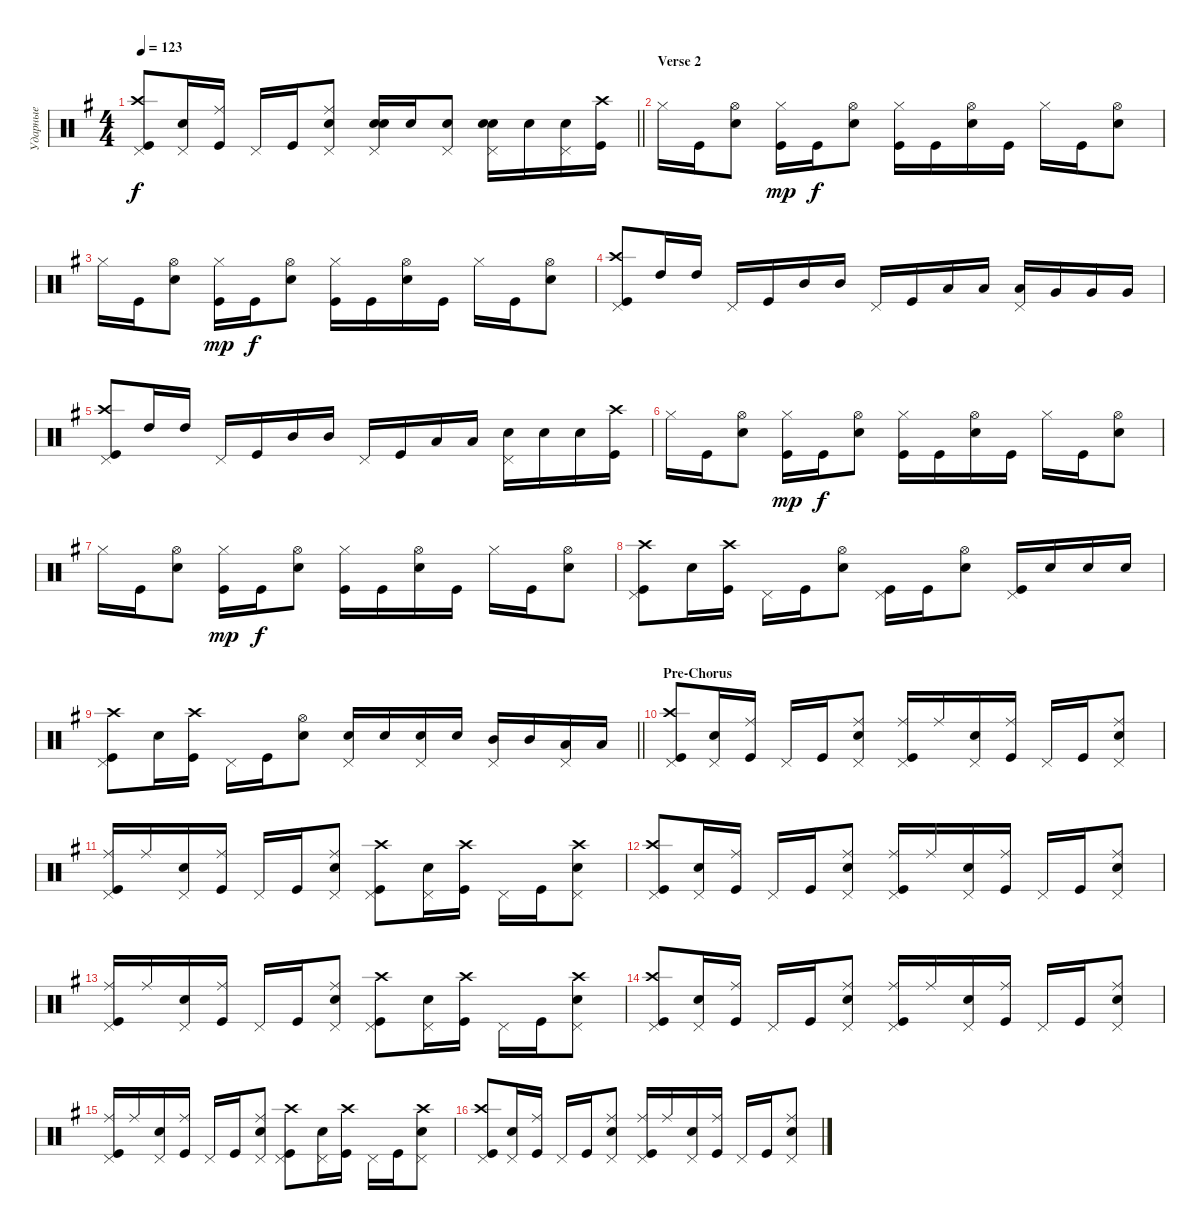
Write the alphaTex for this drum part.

\track ("Ударные" "Ударные") {instrument percussion}
\staff {score}
\articulation defaults
\ts (4 4)
\tempo 123
\clef neutral
\barLineRight lightlight
\ks eminor
("Kick (hit)" "Crash high (hit)" "Pedal Hi-Hat (hit)").8{dy f} ("Snare (hit) 2" "Pedal Hi-Hat (hit)").16 ("Kick (hit)" "Ride (middle)").16 "Pedal Hi-Hat (hit)".16 "Kick (hit)".16 ("Snare (hit) 2" "Ride (middle)" "Pedal Hi-Hat (hit)").8 ("Snare (hit) 2" "Snare (hit) 2" "Pedal Hi-Hat (hit)").16{bd 480} "Snare (hit) 2".16 ("Snare (hit) 2" "Pedal Hi-Hat (hit)").8 ("Snare (hit) 2" "Snare (hit) 2" "Pedal Hi-Hat (hit)").16{bd 480} "Snare (hit) 2".16 ("Snare (hit) 2" "Pedal Hi-Hat (hit)").16 ("Kick (hit)" "Crash high (hit)").16 |
\section ("" "Verse 2")
"Hi-Hat (closed)".16 "Kick (hit)".16 ("Snare (hit) 2" "Hi-Hat (open)").8 ("Kick (hit)" "Hi-Hat (closed)").16{dy mp} "Kick (hit)".16{dy f} ("Snare (hit) 2" "Hi-Hat (open)").8 ("Kick (hit)" "Hi-Hat (closed)").16 "Kick (hit)".16 ("Snare (hit) 2" "Hi-Hat (open)").16 "Kick (hit)".16 "Hi-Hat (closed)".16 "Kick (hit)".16 ("Snare (hit) 2" "Hi-Hat (open)").8 |
"Hi-Hat (closed)".16 "Kick (hit)".16 ("Snare (hit) 2" "Hi-Hat (open)").8 ("Kick (hit)" "Hi-Hat (closed)").16{dy mp} "Kick (hit)".16{dy f} ("Snare (hit) 2" "Hi-Hat (open)").8 ("Kick (hit)" "Hi-Hat (closed)").16 "Kick (hit)".16 ("Snare (hit) 2" "Hi-Hat (open)").16 "Kick (hit)".16 "Hi-Hat (closed)".16 "Kick (hit)".16 ("Snare (hit) 2" "Hi-Hat (open)").8 |
("Kick (hit)" "Crash high (hit)" "Pedal Hi-Hat (hit)").8 "High Tom (hit)".16 "High Tom (hit)".16 "Pedal Hi-Hat (hit)".16 "Kick (hit)".16 "Mid Tom (hit)".16 "Mid Tom (hit)".16 "Pedal Hi-Hat (hit)".16 "Kick (hit)".16 "Low Tom (hit)".16 "Low Tom (hit)".16 ("Low Tom (hit)" "Pedal Hi-Hat (hit)").16 "Very Low Tom (hit)".16 "Very Low Tom (hit)".16 "Very Low Tom (hit)".16 |
("Kick (hit)" "Crash high (hit)" "Pedal Hi-Hat (hit)").8 "High Tom (hit)".16 "High Tom (hit)".16 "Pedal Hi-Hat (hit)".16 "Kick (hit)".16 "Mid Tom (hit)".16 "Mid Tom (hit)".16 "Pedal Hi-Hat (hit)".16 "Kick (hit)".16 "Low Tom (hit)".16 "Low Tom (hit)".16 ("Snare (hit) 2" "Pedal Hi-Hat (hit)").16 "Snare (hit) 2".16 "Snare (hit) 2".16 ("Kick (hit)" "Crash high (hit)").16 |
"Hi-Hat (closed)".16 "Kick (hit)".16 ("Snare (hit) 2" "Hi-Hat (open)").8 ("Kick (hit)" "Hi-Hat (closed)").16{dy mp} "Kick (hit)".16{dy f} ("Snare (hit) 2" "Hi-Hat (open)").8 ("Kick (hit)" "Hi-Hat (closed)").16 "Kick (hit)".16 ("Snare (hit) 2" "Hi-Hat (open)").16 "Kick (hit)".16 "Hi-Hat (closed)".16 "Kick (hit)".16 ("Snare (hit) 2" "Hi-Hat (open)").8 |
"Hi-Hat (closed)".16 "Kick (hit)".16 ("Snare (hit) 2" "Hi-Hat (open)").8 ("Kick (hit)" "Hi-Hat (closed)").16{dy mp} "Kick (hit)".16{dy f} ("Snare (hit) 2" "Hi-Hat (open)").8 ("Kick (hit)" "Hi-Hat (closed)").16 "Kick (hit)".16 ("Snare (hit) 2" "Hi-Hat (open)").16 "Kick (hit)".16 "Hi-Hat (closed)".16 "Kick (hit)".16 ("Snare (hit) 2" "Hi-Hat (open)").8 |
("Kick (hit)" "Crash high (hit)" "Pedal Hi-Hat (hit)").8 "Snare (hit) 2".16 ("Kick (hit)" "Crash high (hit)").16 "Pedal Hi-Hat (hit)".16 "Kick (hit)".16 ("Snare (hit) 2" "Hi-Hat (open)").8 ("Kick (hit)" "Pedal Hi-Hat (hit)").16 "Kick (hit)".16 ("Snare (hit) 2" "Hi-Hat (open)").8 ("Kick (hit)" "Pedal Hi-Hat (hit)").16 "Snare (hit) 2".16 "Snare (hit) 2".16 "Snare (hit) 2".16 |
\barLineRight lightlight
("Kick (hit)" "Crash high (hit)" "Pedal Hi-Hat (hit)").8 "Snare (hit) 2".16 ("Kick (hit)" "Crash high (hit)").16 "Pedal Hi-Hat (hit)".16 "Kick (hit)".16 ("Snare (hit) 2" "Hi-Hat (open)").8 ("Snare (hit) 2" "Pedal Hi-Hat (hit)").16 "Snare (hit) 2".16 ("Snare (hit) 2" "Pedal Hi-Hat (hit)").16 "Snare (hit) 2".16 ("Mid Tom (hit)" "Pedal Hi-Hat (hit)").16 "Mid Tom (hit)".16 ("Low Tom (hit)" "Pedal Hi-Hat (hit)").16 "Low Tom (hit)".16 |
\section ("" "Pre-Chorus")
("Kick (hit)" "Crash high (hit)" "Pedal Hi-Hat (hit)").8 ("Snare (hit) 2" "Pedal Hi-Hat (hit)").16 ("Kick (hit)" "Ride (middle)").16 "Pedal Hi-Hat (hit)".16 "Kick (hit)".16 ("Snare (hit) 2" "Ride (middle)" "Pedal Hi-Hat (hit)").8 ("Kick (hit)" "Ride (middle)" "Pedal Hi-Hat (hit)").16 "Ride (middle)".16 ("Snare (hit) 2" "Pedal Hi-Hat (hit)").16 ("Ride (middle)" "Kick (hit)").16 "Pedal Hi-Hat (hit)".16 "Kick (hit)".16 ("Snare (hit) 2" "Ride (middle)" "Pedal Hi-Hat (hit)").8 |
("Kick (hit)" "Ride (middle)" "Pedal Hi-Hat (hit)").16 "Ride (middle)".16 ("Snare (hit) 2" "Pedal Hi-Hat (hit)").16 ("Kick (hit)" "Ride (middle)").16 "Pedal Hi-Hat (hit)".16 "Kick (hit)".16 ("Snare (hit) 2" "Ride (middle)" "Pedal Hi-Hat (hit)").8 ("Kick (hit)" "Crash high (hit)" "Pedal Hi-Hat (hit)").8 ("Snare (hit) 2" "Pedal Hi-Hat (hit)").16 ("Crash high (hit)" "Kick (hit)").16 "Pedal Hi-Hat (hit)".16 "Kick (hit)".16 ("Snare (hit) 2" "Crash high (hit)" "Pedal Hi-Hat (hit)").8 |
("Kick (hit)" "Crash high (hit)" "Pedal Hi-Hat (hit)").8 ("Snare (hit) 2" "Pedal Hi-Hat (hit)").16 ("Kick (hit)" "Ride (middle)").16 "Pedal Hi-Hat (hit)".16 "Kick (hit)".16 ("Snare (hit) 2" "Ride (middle)" "Pedal Hi-Hat (hit)").8 ("Kick (hit)" "Ride (middle)" "Pedal Hi-Hat (hit)").16 "Ride (middle)".16 ("Snare (hit) 2" "Pedal Hi-Hat (hit)").16 ("Ride (middle)" "Kick (hit)").16 "Pedal Hi-Hat (hit)".16 "Kick (hit)".16 ("Snare (hit) 2" "Ride (middle)" "Pedal Hi-Hat (hit)").8 |
("Kick (hit)" "Ride (middle)" "Pedal Hi-Hat (hit)").16 "Ride (middle)".16 ("Snare (hit) 2" "Pedal Hi-Hat (hit)").16 ("Kick (hit)" "Ride (middle)").16 "Pedal Hi-Hat (hit)".16 "Kick (hit)".16 ("Snare (hit) 2" "Ride (middle)" "Pedal Hi-Hat (hit)").8 ("Kick (hit)" "Crash high (hit)" "Pedal Hi-Hat (hit)").8 ("Snare (hit) 2" "Pedal Hi-Hat (hit)").16 ("Crash high (hit)" "Kick (hit)").16 "Pedal Hi-Hat (hit)".16 "Kick (hit)".16 ("Snare (hit) 2" "Crash high (hit)" "Pedal Hi-Hat (hit)").8 |
("Kick (hit)" "Crash high (hit)" "Pedal Hi-Hat (hit)").8 ("Snare (hit) 2" "Pedal Hi-Hat (hit)").16 ("Kick (hit)" "Ride (middle)").16 "Pedal Hi-Hat (hit)".16 "Kick (hit)".16 ("Snare (hit) 2" "Ride (middle)" "Pedal Hi-Hat (hit)").8 ("Kick (hit)" "Ride (middle)" "Pedal Hi-Hat (hit)").16 "Ride (middle)".16 ("Snare (hit) 2" "Pedal Hi-Hat (hit)").16 ("Ride (middle)" "Kick (hit)").16 "Pedal Hi-Hat (hit)".16 "Kick (hit)".16 ("Snare (hit) 2" "Ride (middle)" "Pedal Hi-Hat (hit)").8 |
("Kick (hit)" "Ride (middle)" "Pedal Hi-Hat (hit)").16 "Ride (middle)".16 ("Snare (hit) 2" "Pedal Hi-Hat (hit)").16 ("Kick (hit)" "Ride (middle)").16 "Pedal Hi-Hat (hit)".16 "Kick (hit)".16 ("Snare (hit) 2" "Ride (middle)" "Pedal Hi-Hat (hit)").8 ("Kick (hit)" "Crash high (hit)" "Pedal Hi-Hat (hit)").8 ("Snare (hit) 2" "Pedal Hi-Hat (hit)").16 ("Crash high (hit)" "Kick (hit)").16 "Pedal Hi-Hat (hit)".16 "Kick (hit)".16 ("Snare (hit) 2" "Crash high (hit)" "Pedal Hi-Hat (hit)").8 |
("Kick (hit)" "Crash high (hit)" "Pedal Hi-Hat (hit)").8 ("Snare (hit) 2" "Pedal Hi-Hat (hit)").16 ("Kick (hit)" "Ride (middle)").16 "Pedal Hi-Hat (hit)".16 "Kick (hit)".16 ("Snare (hit) 2" "Ride (middle)" "Pedal Hi-Hat (hit)").8 ("Kick (hit)" "Ride (middle)" "Pedal Hi-Hat (hit)").16 "Ride (middle)".16 ("Snare (hit) 2" "Pedal Hi-Hat (hit)").16 ("Ride (middle)" "Kick (hit)").16 "Pedal Hi-Hat (hit)".16 "Kick (hit)".16 ("Snare (hit) 2" "Ride (middle)" "Pedal Hi-Hat (hit)").8
